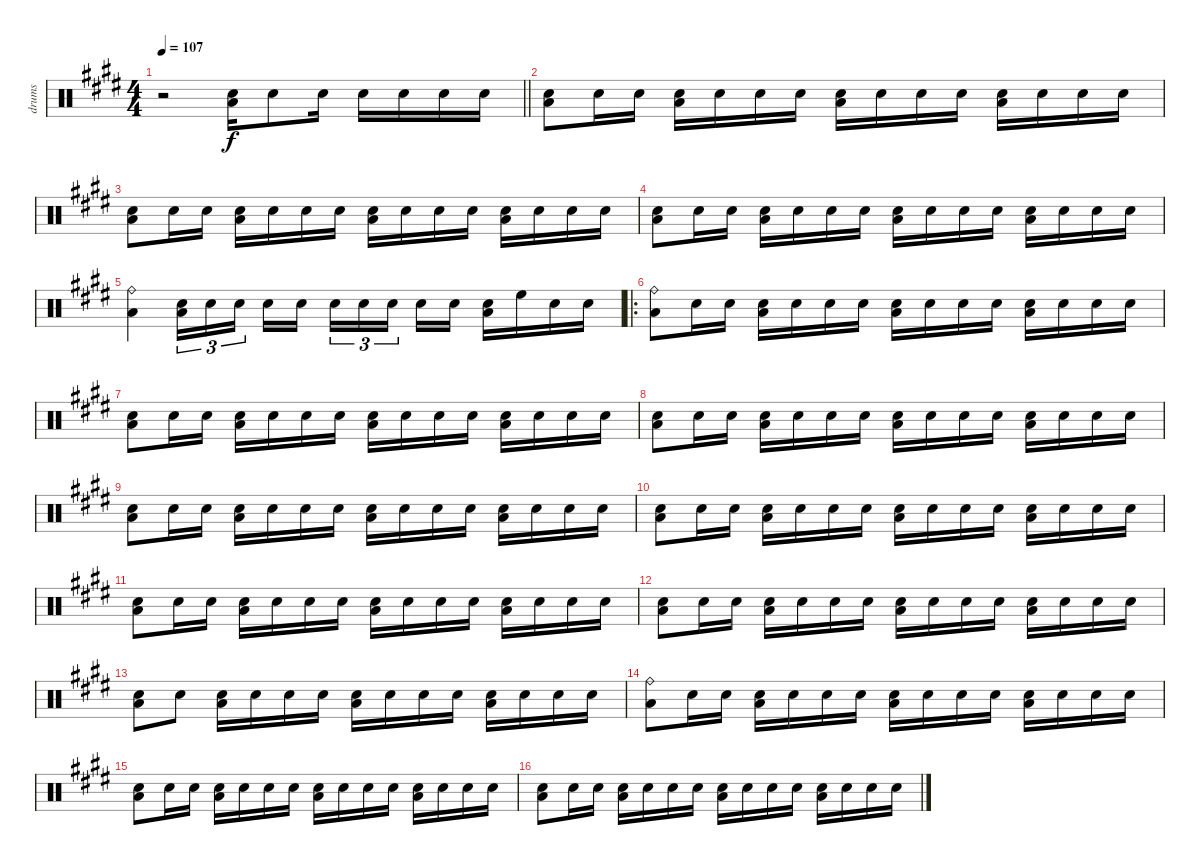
\track ("drums" "drums") {instrument percussion}
\staff {score}
\articulation defaults
\ts (4 4)
\tempo 107
\clef neutral
\barLineRight lightlight
\ks e
r.2{dy f} ("Electric Snare (hit)" "Low Floor Tom (hit)").16 "Electric Snare (hit)".8 "Electric Snare (hit)".16 "Electric Snare (hit)".16 "Electric Snare (hit)".16 "Electric Snare (hit)".16 "Electric Snare (hit)".16 |
("Electric Snare (hit)" "Low Floor Tom (hit)").8 "Electric Snare (hit)".16 "Electric Snare (hit)".16 ("Electric Snare (hit)" "Low Floor Tom (hit)").16 "Electric Snare (hit)".16 "Electric Snare (hit)".16 "Electric Snare (hit)".16 ("Electric Snare (hit)" "Low Floor Tom (hit)").16 "Electric Snare (hit)".16 "Electric Snare (hit)".16 "Electric Snare (hit)".16 ("Electric Snare (hit)" "Low Floor Tom (hit)").16 "Electric Snare (hit)".16 "Electric Snare (hit)".16 "Electric Snare (hit)".16 |
("Electric Snare (hit)" "Low Floor Tom (hit)").8 "Electric Snare (hit)".16 "Electric Snare (hit)".16 ("Electric Snare (hit)" "Low Floor Tom (hit)").16 "Electric Snare (hit)".16 "Electric Snare (hit)".16 "Electric Snare (hit)".16 ("Electric Snare (hit)" "Low Floor Tom (hit)").16 "Electric Snare (hit)".16 "Electric Snare (hit)".16 "Electric Snare (hit)".16 ("Electric Snare (hit)" "Low Floor Tom (hit)").16 "Electric Snare (hit)".16 "Electric Snare (hit)".16 "Electric Snare (hit)".16 |
("Electric Snare (hit)" "Low Floor Tom (hit)").8 "Electric Snare (hit)".16 "Electric Snare (hit)".16 ("Electric Snare (hit)" "Low Floor Tom (hit)").16 "Electric Snare (hit)".16 "Electric Snare (hit)".16 "Electric Snare (hit)".16 ("Electric Snare (hit)" "Low Floor Tom (hit)").16 "Electric Snare (hit)".16 "Electric Snare (hit)".16 "Electric Snare (hit)".16 ("Electric Snare (hit)" "Low Floor Tom (hit)").16 "Electric Snare (hit)".16 "Electric Snare (hit)".16 "Electric Snare (hit)".16 |
("Ride (bell)" "Low Floor Tom (hit)").4 ("Electric Snare (hit)" "Low Floor Tom (hit)").16{tu (3 2)} "Electric Snare (hit)".16{tu (3 2)} "Electric Snare (hit)".16{tu (3 2)} "Electric Snare (hit)".16 "Electric Snare (hit)".16 "Electric Snare (hit)".16{tu (3 2)} "Electric Snare (hit)".16{tu (3 2)} "Electric Snare (hit)".16{tu (3 2)} "Electric Snare (hit)".16 "Electric Snare (hit)".16 ("Electric Snare (hit)" "Low Floor Tom (hit)").16 "High Floor Tom (hit)".16 "Snare (hit) 2".16 "Electric Snare (hit)".16 |
\ro
("Ride (bell)" "Low Floor Tom (hit)").8 "Electric Snare (hit)".16 "Electric Snare (hit)".16 ("Electric Snare (hit)" "Low Floor Tom (hit)").16 "Electric Snare (hit)".16 "Electric Snare (hit)".16 "Electric Snare (hit)".16 ("Electric Snare (hit)" "Low Floor Tom (hit)").16 "Electric Snare (hit)".16 "Electric Snare (hit)".16 "Electric Snare (hit)".16 ("Electric Snare (hit)" "Low Floor Tom (hit)").16 "Electric Snare (hit)".16 "Electric Snare (hit)".16 "Electric Snare (hit)".16 |
("Electric Snare (hit)" "Low Floor Tom (hit)").8 "Electric Snare (hit)".16 "Electric Snare (hit)".16 ("Electric Snare (hit)" "Low Floor Tom (hit)").16 "Electric Snare (hit)".16 "Electric Snare (hit)".16 "Electric Snare (hit)".16 ("Electric Snare (hit)" "Low Floor Tom (hit)").16 "Electric Snare (hit)".16 "Electric Snare (hit)".16 "Electric Snare (hit)".16 ("Electric Snare (hit)" "Low Floor Tom (hit)").16 "Electric Snare (hit)".16 "Electric Snare (hit)".16 "Electric Snare (hit)".16 |
("Electric Snare (hit)" "Low Floor Tom (hit)").8 "Electric Snare (hit)".16 "Electric Snare (hit)".16 ("Electric Snare (hit)" "Low Floor Tom (hit)").16 "Electric Snare (hit)".16 "Electric Snare (hit)".16 "Electric Snare (hit)".16 ("Electric Snare (hit)" "Low Floor Tom (hit)").16 "Electric Snare (hit)".16 "Electric Snare (hit)".16 "Electric Snare (hit)".16 ("Electric Snare (hit)" "Low Floor Tom (hit)").16 "Electric Snare (hit)".16 "Electric Snare (hit)".16 "Electric Snare (hit)".16 |
("Electric Snare (hit)" "Low Floor Tom (hit)").8 "Electric Snare (hit)".16 "Electric Snare (hit)".16 ("Electric Snare (hit)" "Low Floor Tom (hit)").16 "Electric Snare (hit)".16 "Electric Snare (hit)".16 "Electric Snare (hit)".16 ("Electric Snare (hit)" "Low Floor Tom (hit)").16 "Electric Snare (hit)".16 "Electric Snare (hit)".16 "Electric Snare (hit)".16 ("Electric Snare (hit)" "Low Floor Tom (hit)").16 "Electric Snare (hit)".16 "Electric Snare (hit)".16 "Electric Snare (hit)".16 |
("Electric Snare (hit)" "Low Floor Tom (hit)").8 "Electric Snare (hit)".16 "Electric Snare (hit)".16 ("Electric Snare (hit)" "Low Floor Tom (hit)").16 "Electric Snare (hit)".16 "Electric Snare (hit)".16 "Electric Snare (hit)".16 ("Electric Snare (hit)" "Low Floor Tom (hit)").16 "Electric Snare (hit)".16 "Electric Snare (hit)".16 "Electric Snare (hit)".16 ("Electric Snare (hit)" "Low Floor Tom (hit)").16 "Electric Snare (hit)".16 "Electric Snare (hit)".16 "Electric Snare (hit)".16 |
("Electric Snare (hit)" "Low Floor Tom (hit)").8 "Electric Snare (hit)".16 "Electric Snare (hit)".16 ("Electric Snare (hit)" "Low Floor Tom (hit)").16 "Electric Snare (hit)".16 "Electric Snare (hit)".16 "Electric Snare (hit)".16 ("Electric Snare (hit)" "Low Floor Tom (hit)").16 "Electric Snare (hit)".16 "Electric Snare (hit)".16 "Electric Snare (hit)".16 ("Electric Snare (hit)" "Low Floor Tom (hit)").16 "Electric Snare (hit)".16 "Electric Snare (hit)".16 "Electric Snare (hit)".16 |
("Electric Snare (hit)" "Low Floor Tom (hit)").8 "Electric Snare (hit)".16 "Electric Snare (hit)".16 ("Electric Snare (hit)" "Low Floor Tom (hit)").16 "Electric Snare (hit)".16 "Electric Snare (hit)".16 "Electric Snare (hit)".16 ("Electric Snare (hit)" "Low Floor Tom (hit)").16 "Electric Snare (hit)".16 "Electric Snare (hit)".16 "Electric Snare (hit)".16 ("Electric Snare (hit)" "Low Floor Tom (hit)").16 "Electric Snare (hit)".16 "Electric Snare (hit)".16 "Electric Snare (hit)".16 |
("Electric Snare (hit)" "Low Floor Tom (hit)").8 "Electric Snare (hit)".8 ("Electric Snare (hit)" "Low Floor Tom (hit)").16 "Electric Snare (hit)".16 "Electric Snare (hit)".16 "Electric Snare (hit)".16 ("Electric Snare (hit)" "Low Floor Tom (hit)").16 "Electric Snare (hit)".16 "Electric Snare (hit)".16 "Electric Snare (hit)".16 ("Electric Snare (hit)" "Low Floor Tom (hit)").16 "Electric Snare (hit)".16 "Electric Snare (hit)".16 "Electric Snare (hit)".16 |
("Ride (bell)" "Low Floor Tom (hit)").8 "Electric Snare (hit)".16 "Electric Snare (hit)".16 ("Electric Snare (hit)" "Low Floor Tom (hit)").16 "Electric Snare (hit)".16 "Electric Snare (hit)".16 "Electric Snare (hit)".16 ("Electric Snare (hit)" "Low Floor Tom (hit)").16 "Electric Snare (hit)".16 "Electric Snare (hit)".16 "Electric Snare (hit)".16 ("Electric Snare (hit)" "Low Floor Tom (hit)").16 "Electric Snare (hit)".16 "Electric Snare (hit)".16 "Electric Snare (hit)".16 |
("Electric Snare (hit)" "Low Floor Tom (hit)").8 "Electric Snare (hit)".16 "Electric Snare (hit)".16 ("Electric Snare (hit)" "Low Floor Tom (hit)").16 "Electric Snare (hit)".16 "Electric Snare (hit)".16 "Electric Snare (hit)".16 ("Electric Snare (hit)" "Low Floor Tom (hit)").16 "Electric Snare (hit)".16 "Electric Snare (hit)".16 "Electric Snare (hit)".16 ("Electric Snare (hit)" "Low Floor Tom (hit)").16 "Electric Snare (hit)".16 "Electric Snare (hit)".16 "Electric Snare (hit)".16 |
("Electric Snare (hit)" "Low Floor Tom (hit)").8 "Electric Snare (hit)".16 "Electric Snare (hit)".16 ("Electric Snare (hit)" "Low Floor Tom (hit)").16 "Electric Snare (hit)".16 "Electric Snare (hit)".16 "Electric Snare (hit)".16 ("Electric Snare (hit)" "Low Floor Tom (hit)").16 "Electric Snare (hit)".16 "Electric Snare (hit)".16 "Electric Snare (hit)".16 ("Electric Snare (hit)" "Low Floor Tom (hit)").16 "Electric Snare (hit)".16 "Electric Snare (hit)".16 "Electric Snare (hit)".16
